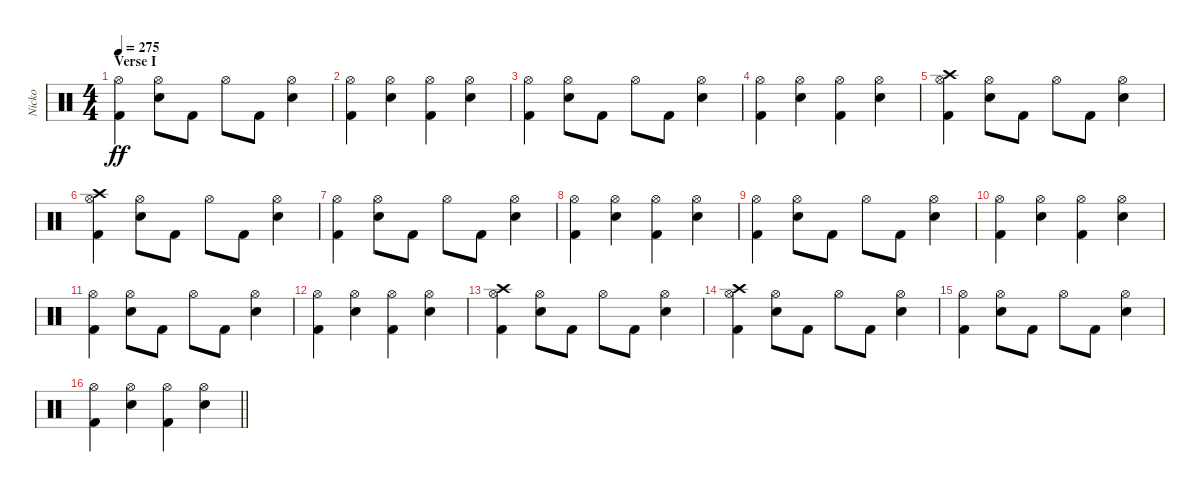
\track ("Nicko" "Nicko") {instrument percussion}
\staff {score}
\articulation defaults
\ts (4 4)
\section ("" "Verse I")
\tempo 275
\clef neutral
\ks c
("Kick (hit) 2" "Hi-Hat (open)").4{dy ff} ("Snare (hit) 2" "Hi-Hat (open)").8 "Kick (hit) 2".8 "Hi-Hat (open)".8 "Kick (hit) 2".8 ("Snare (hit) 2" "Hi-Hat (open)").4 |
("Kick (hit) 2" "Hi-Hat (open)").4 ("Snare (hit) 2" "Hi-Hat (open)").4 ("Kick (hit) 2" "Hi-Hat (open)").4 ("Snare (hit) 2" "Hi-Hat (open)").4 |
("Kick (hit) 2" "Hi-Hat (open)").4 ("Snare (hit) 2" "Hi-Hat (open)").8 "Kick (hit) 2".8 "Hi-Hat (open)".8 "Kick (hit) 2".8 ("Snare (hit) 2" "Hi-Hat (open)").4 |
("Kick (hit) 2" "Hi-Hat (open)").4 ("Snare (hit) 2" "Hi-Hat (open)").4 ("Kick (hit) 2" "Hi-Hat (open)").4 ("Snare (hit) 2" "Hi-Hat (open)").4 |
("Kick (hit) 2" "Hi-Hat (open)" "Crash high (hit)").4 ("Snare (hit) 2" "Hi-Hat (open)").8 "Kick (hit) 2".8 "Hi-Hat (open)".8 "Kick (hit) 2".8 ("Snare (hit) 2" "Hi-Hat (open)").4 |
("Kick (hit) 2" "Hi-Hat (open)" "Crash high (hit)").4 ("Snare (hit) 2" "Hi-Hat (open)").8 "Kick (hit) 2".8 "Hi-Hat (open)".8 "Kick (hit) 2".8 ("Snare (hit) 2" "Hi-Hat (open)").4 |
("Kick (hit) 2" "Hi-Hat (open)").4 ("Snare (hit) 2" "Hi-Hat (open)").8 "Kick (hit) 2".8 "Hi-Hat (open)".8 "Kick (hit) 2".8 ("Snare (hit) 2" "Hi-Hat (open)").4 |
("Kick (hit) 2" "Hi-Hat (open)").4 ("Snare (hit) 2" "Hi-Hat (open)").4 ("Kick (hit) 2" "Hi-Hat (open)").4 ("Snare (hit) 2" "Hi-Hat (open)").4 |
("Kick (hit) 2" "Hi-Hat (open)").4 ("Snare (hit) 2" "Hi-Hat (open)").8 "Kick (hit) 2".8 "Hi-Hat (open)".8 "Kick (hit) 2".8 ("Snare (hit) 2" "Hi-Hat (open)").4 |
("Kick (hit) 2" "Hi-Hat (open)").4 ("Snare (hit) 2" "Hi-Hat (open)").4 ("Kick (hit) 2" "Hi-Hat (open)").4 ("Snare (hit) 2" "Hi-Hat (open)").4 |
("Kick (hit) 2" "Hi-Hat (open)").4 ("Snare (hit) 2" "Hi-Hat (open)").8 "Kick (hit) 2".8 "Hi-Hat (open)".8 "Kick (hit) 2".8 ("Snare (hit) 2" "Hi-Hat (open)").4 |
("Kick (hit) 2" "Hi-Hat (open)").4 ("Snare (hit) 2" "Hi-Hat (open)").4 ("Kick (hit) 2" "Hi-Hat (open)").4 ("Snare (hit) 2" "Hi-Hat (open)").4 |
("Kick (hit) 2" "Hi-Hat (open)" "Crash high (hit)").4 ("Snare (hit) 2" "Hi-Hat (open)").8 "Kick (hit) 2".8 "Hi-Hat (open)".8 "Kick (hit) 2".8 ("Snare (hit) 2" "Hi-Hat (open)").4 |
("Kick (hit) 2" "Hi-Hat (open)" "Crash high (hit)").4 ("Snare (hit) 2" "Hi-Hat (open)").8 "Kick (hit) 2".8 "Hi-Hat (open)".8 "Kick (hit) 2".8 ("Snare (hit) 2" "Hi-Hat (open)").4 |
("Kick (hit) 2" "Hi-Hat (open)").4 ("Snare (hit) 2" "Hi-Hat (open)").8 "Kick (hit) 2".8 "Hi-Hat (open)".8 "Kick (hit) 2".8 ("Snare (hit) 2" "Hi-Hat (open)").4 |
\barLineRight lightlight
("Kick (hit) 2" "Hi-Hat (open)").4 ("Snare (hit) 2" "Hi-Hat (open)").4 ("Kick (hit) 2" "Hi-Hat (open)").4 ("Snare (hit) 2" "Hi-Hat (open)").4
